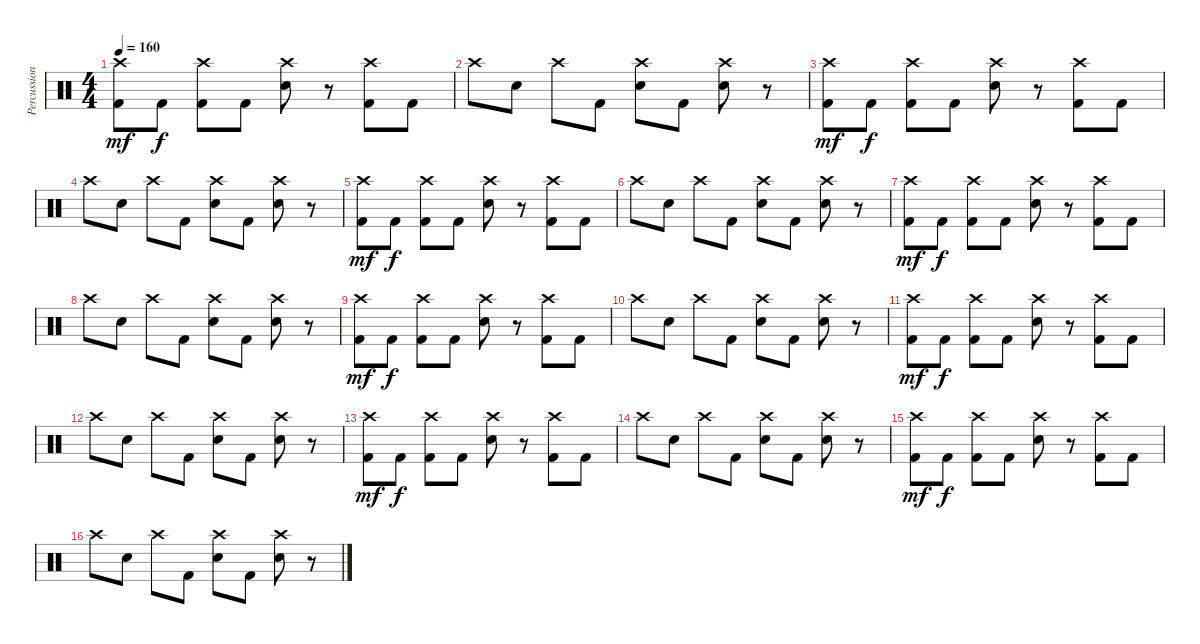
\track ("Percussion" "Percussion") {instrument percussion}
\staff {score}
\articulation defaults
\ts (4 4)
\tempo 160
\clef neutral
\ks c
("Crash high (hit)" "Kick (hit) 2").8{dy mf} "Kick (hit) 2".8{dy f} ("Crash high (hit)" "Kick (hit) 2").8 "Kick (hit) 2".8 ("Crash high (hit)" "Electric Snare (hit)").8 r.8 ("Crash high (hit)" "Kick (hit) 2").8 "Kick (hit) 2".8 |
"Crash high (hit)".8 "Electric Snare (hit)".8 "Crash high (hit)".8 "Kick (hit) 2".8 ("Crash high (hit)" "Electric Snare (hit)").8 "Kick (hit) 2".8 ("Crash high (hit)" "Electric Snare (hit)").8 r.8 |
("Crash high (hit)" "Kick (hit) 2").8{dy mf} "Kick (hit) 2".8{dy f} ("Crash high (hit)" "Kick (hit) 2").8 "Kick (hit) 2".8 ("Crash high (hit)" "Electric Snare (hit)").8 r.8 ("Crash high (hit)" "Kick (hit) 2").8 "Kick (hit) 2".8 |
"Crash high (hit)".8 "Electric Snare (hit)".8 "Crash high (hit)".8 "Kick (hit) 2".8 ("Crash high (hit)" "Electric Snare (hit)").8 "Kick (hit) 2".8 ("Crash high (hit)" "Electric Snare (hit)").8 r.8 |
("Crash high (hit)" "Kick (hit) 2").8{dy mf} "Kick (hit) 2".8{dy f} ("Crash high (hit)" "Kick (hit) 2").8 "Kick (hit) 2".8 ("Crash high (hit)" "Electric Snare (hit)").8 r.8 ("Crash high (hit)" "Kick (hit) 2").8 "Kick (hit) 2".8 |
"Crash high (hit)".8 "Electric Snare (hit)".8 "Crash high (hit)".8 "Kick (hit) 2".8 ("Crash high (hit)" "Electric Snare (hit)").8 "Kick (hit) 2".8 ("Crash high (hit)" "Electric Snare (hit)").8 r.8 |
("Crash high (hit)" "Kick (hit) 2").8{dy mf} "Kick (hit) 2".8{dy f} ("Crash high (hit)" "Kick (hit) 2").8 "Kick (hit) 2".8 ("Crash high (hit)" "Electric Snare (hit)").8 r.8 ("Crash high (hit)" "Kick (hit) 2").8 "Kick (hit) 2".8 |
"Crash high (hit)".8 "Electric Snare (hit)".8 "Crash high (hit)".8 "Kick (hit) 2".8 ("Crash high (hit)" "Electric Snare (hit)").8 "Kick (hit) 2".8 ("Crash high (hit)" "Electric Snare (hit)").8 r.8 |
("Crash high (hit)" "Kick (hit) 2").8{dy mf} "Kick (hit) 2".8{dy f} ("Crash high (hit)" "Kick (hit) 2").8 "Kick (hit) 2".8 ("Crash high (hit)" "Electric Snare (hit)").8 r.8 ("Crash high (hit)" "Kick (hit) 2").8 "Kick (hit) 2".8 |
"Crash high (hit)".8 "Electric Snare (hit)".8 "Crash high (hit)".8 "Kick (hit) 2".8 ("Crash high (hit)" "Electric Snare (hit)").8 "Kick (hit) 2".8 ("Crash high (hit)" "Electric Snare (hit)").8 r.8 |
("Crash high (hit)" "Kick (hit) 2").8{dy mf} "Kick (hit) 2".8{dy f} ("Crash high (hit)" "Kick (hit) 2").8 "Kick (hit) 2".8 ("Crash high (hit)" "Electric Snare (hit)").8 r.8 ("Crash high (hit)" "Kick (hit) 2").8 "Kick (hit) 2".8 |
"Crash high (hit)".8 "Electric Snare (hit)".8 "Crash high (hit)".8 "Kick (hit) 2".8 ("Crash high (hit)" "Electric Snare (hit)").8 "Kick (hit) 2".8 ("Crash high (hit)" "Electric Snare (hit)").8 r.8 |
("Crash high (hit)" "Kick (hit) 2").8{dy mf} "Kick (hit) 2".8{dy f} ("Crash high (hit)" "Kick (hit) 2").8 "Kick (hit) 2".8 ("Crash high (hit)" "Electric Snare (hit)").8 r.8 ("Crash high (hit)" "Kick (hit) 2").8 "Kick (hit) 2".8 |
"Crash high (hit)".8 "Electric Snare (hit)".8 "Crash high (hit)".8 "Kick (hit) 2".8 ("Crash high (hit)" "Electric Snare (hit)").8 "Kick (hit) 2".8 ("Crash high (hit)" "Electric Snare (hit)").8 r.8 |
("Crash high (hit)" "Kick (hit) 2").8{dy mf} "Kick (hit) 2".8{dy f} ("Crash high (hit)" "Kick (hit) 2").8 "Kick (hit) 2".8 ("Crash high (hit)" "Electric Snare (hit)").8 r.8 ("Crash high (hit)" "Kick (hit) 2").8 "Kick (hit) 2".8 |
"Crash high (hit)".8 "Electric Snare (hit)".8 "Crash high (hit)".8 "Kick (hit) 2".8 ("Crash high (hit)" "Electric Snare (hit)").8 "Kick (hit) 2".8 ("Crash high (hit)" "Electric Snare (hit)").8 r.8
